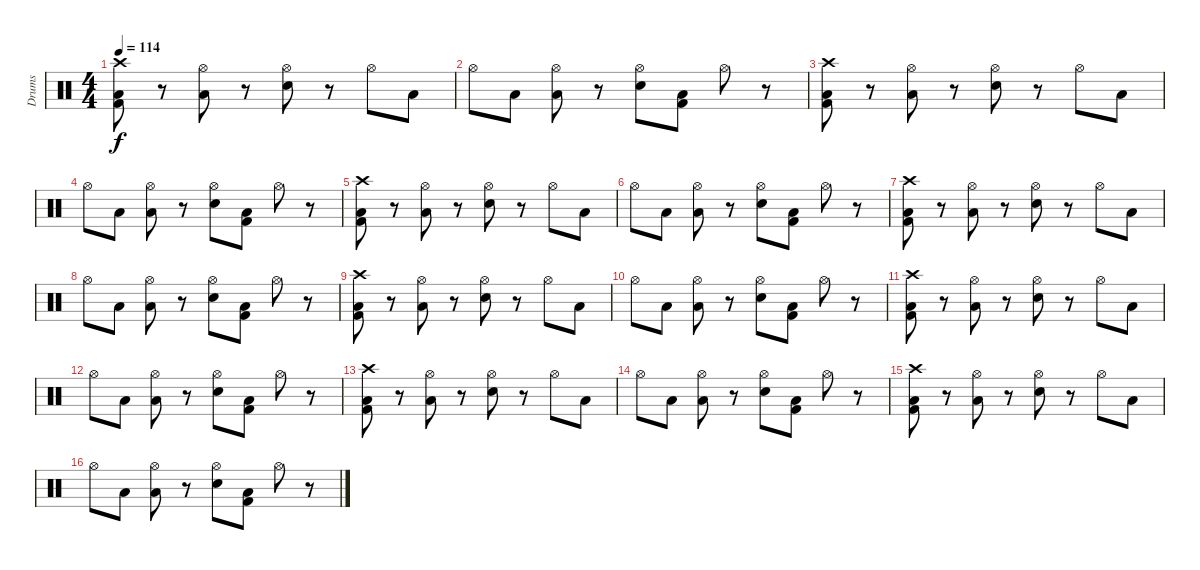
\track ("Drums" "Drums") {instrument percussion}
\staff {score}
\articulation defaults
\ts (4 4)
\tempo 114
\clef neutral
\ks c
("Crash high (hit)" "Kick (hit) 2" "Low Floor Tom (hit)").8{dy f} r.8 ("Hi-Hat (open)" "Low Floor Tom (hit)").8 r.8 ("Hi-Hat (open)" "Snare (hit) 2").8 r.8 "Hi-Hat (open)".8 "Low Floor Tom (hit)".8 |
"Hi-Hat (open)".8 "Low Floor Tom (hit)".8 ("Hi-Hat (open)" "Low Floor Tom (hit)").8 r.8 ("Hi-Hat (open)" "Snare (hit) 2").8 ("Kick (hit) 2" "Low Floor Tom (hit)").8 "Hi-Hat (open)".8 r.8 |
("Crash high (hit)" "Kick (hit) 2" "Low Floor Tom (hit)").8 r.8 ("Hi-Hat (open)" "Low Floor Tom (hit)").8 r.8 ("Hi-Hat (open)" "Snare (hit) 2").8 r.8 "Hi-Hat (open)".8 "Low Floor Tom (hit)".8 |
"Hi-Hat (open)".8 "Low Floor Tom (hit)".8 ("Hi-Hat (open)" "Low Floor Tom (hit)").8 r.8 ("Hi-Hat (open)" "Snare (hit) 2").8 ("Kick (hit) 2" "Low Floor Tom (hit)").8 "Hi-Hat (open)".8 r.8 |
("Crash high (hit)" "Kick (hit) 2" "Low Floor Tom (hit)").8 r.8 ("Hi-Hat (open)" "Low Floor Tom (hit)").8 r.8 ("Hi-Hat (open)" "Snare (hit) 2").8 r.8 "Hi-Hat (open)".8 "Low Floor Tom (hit)".8 |
"Hi-Hat (open)".8 "Low Floor Tom (hit)".8 ("Hi-Hat (open)" "Low Floor Tom (hit)").8 r.8 ("Hi-Hat (open)" "Snare (hit) 2").8 ("Kick (hit) 2" "Low Floor Tom (hit)").8 "Hi-Hat (open)".8 r.8 |
("Crash high (hit)" "Kick (hit) 2" "Low Floor Tom (hit)").8 r.8 ("Hi-Hat (open)" "Low Floor Tom (hit)").8 r.8 ("Hi-Hat (open)" "Snare (hit) 2").8 r.8 "Hi-Hat (open)".8 "Low Floor Tom (hit)".8 |
"Hi-Hat (open)".8 "Low Floor Tom (hit)".8 ("Hi-Hat (open)" "Low Floor Tom (hit)").8 r.8 ("Hi-Hat (open)" "Snare (hit) 2").8 ("Kick (hit) 2" "Low Floor Tom (hit)").8 "Hi-Hat (open)".8 r.8 |
("Crash high (hit)" "Kick (hit) 2" "Low Floor Tom (hit)").8 r.8 ("Hi-Hat (open)" "Low Floor Tom (hit)").8 r.8 ("Hi-Hat (open)" "Snare (hit) 2").8 r.8 "Hi-Hat (open)".8 "Low Floor Tom (hit)".8 |
"Hi-Hat (open)".8 "Low Floor Tom (hit)".8 ("Hi-Hat (open)" "Low Floor Tom (hit)").8 r.8 ("Hi-Hat (open)" "Snare (hit) 2").8 ("Kick (hit) 2" "Low Floor Tom (hit)").8 "Hi-Hat (open)".8 r.8 |
("Crash high (hit)" "Kick (hit) 2" "Low Floor Tom (hit)").8 r.8 ("Hi-Hat (open)" "Low Floor Tom (hit)").8 r.8 ("Hi-Hat (open)" "Snare (hit) 2").8 r.8 "Hi-Hat (open)".8 "Low Floor Tom (hit)".8 |
"Hi-Hat (open)".8 "Low Floor Tom (hit)".8 ("Hi-Hat (open)" "Low Floor Tom (hit)").8 r.8 ("Hi-Hat (open)" "Snare (hit) 2").8 ("Kick (hit) 2" "Low Floor Tom (hit)").8 "Hi-Hat (open)".8 r.8 |
("Crash high (hit)" "Kick (hit) 2" "Low Floor Tom (hit)").8 r.8 ("Hi-Hat (open)" "Low Floor Tom (hit)").8 r.8 ("Hi-Hat (open)" "Snare (hit) 2").8 r.8 "Hi-Hat (open)".8 "Low Floor Tom (hit)".8 |
"Hi-Hat (open)".8 "Low Floor Tom (hit)".8 ("Hi-Hat (open)" "Low Floor Tom (hit)").8 r.8 ("Hi-Hat (open)" "Snare (hit) 2").8 ("Kick (hit) 2" "Low Floor Tom (hit)").8 "Hi-Hat (open)".8 r.8 |
("Crash high (hit)" "Kick (hit) 2" "Low Floor Tom (hit)").8 r.8 ("Hi-Hat (open)" "Low Floor Tom (hit)").8 r.8 ("Hi-Hat (open)" "Snare (hit) 2").8 r.8 "Hi-Hat (open)".8 "Low Floor Tom (hit)".8 |
"Hi-Hat (open)".8 "Low Floor Tom (hit)".8 ("Hi-Hat (open)" "Low Floor Tom (hit)").8 r.8 ("Hi-Hat (open)" "Snare (hit) 2").8 ("Kick (hit) 2" "Low Floor Tom (hit)").8 "Hi-Hat (open)".8 r.8
